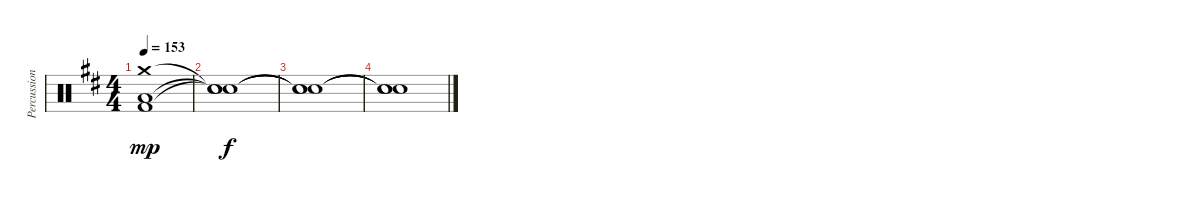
\track ("Percussion" "Percussion") {instrument percussion}
\staff {score}
\articulation defaults
\ts (4 4)
\tempo 153
\clef neutral
\ks bminor
("Kick (hit) 2" "Low Tom (hit)" "Crash medium (hit)").1{dy mp} |
("Snare (hit)"{t} "Snare (hit)"{t} "Snare (hit)"{t}).1{dy f} |
("Snare (hit)"{t} "Snare (hit)"{t} "Snare (hit)"{t}).1 |
("Snare (hit)"{t} "Snare (hit)"{t} "Snare (hit)"{t}).1
